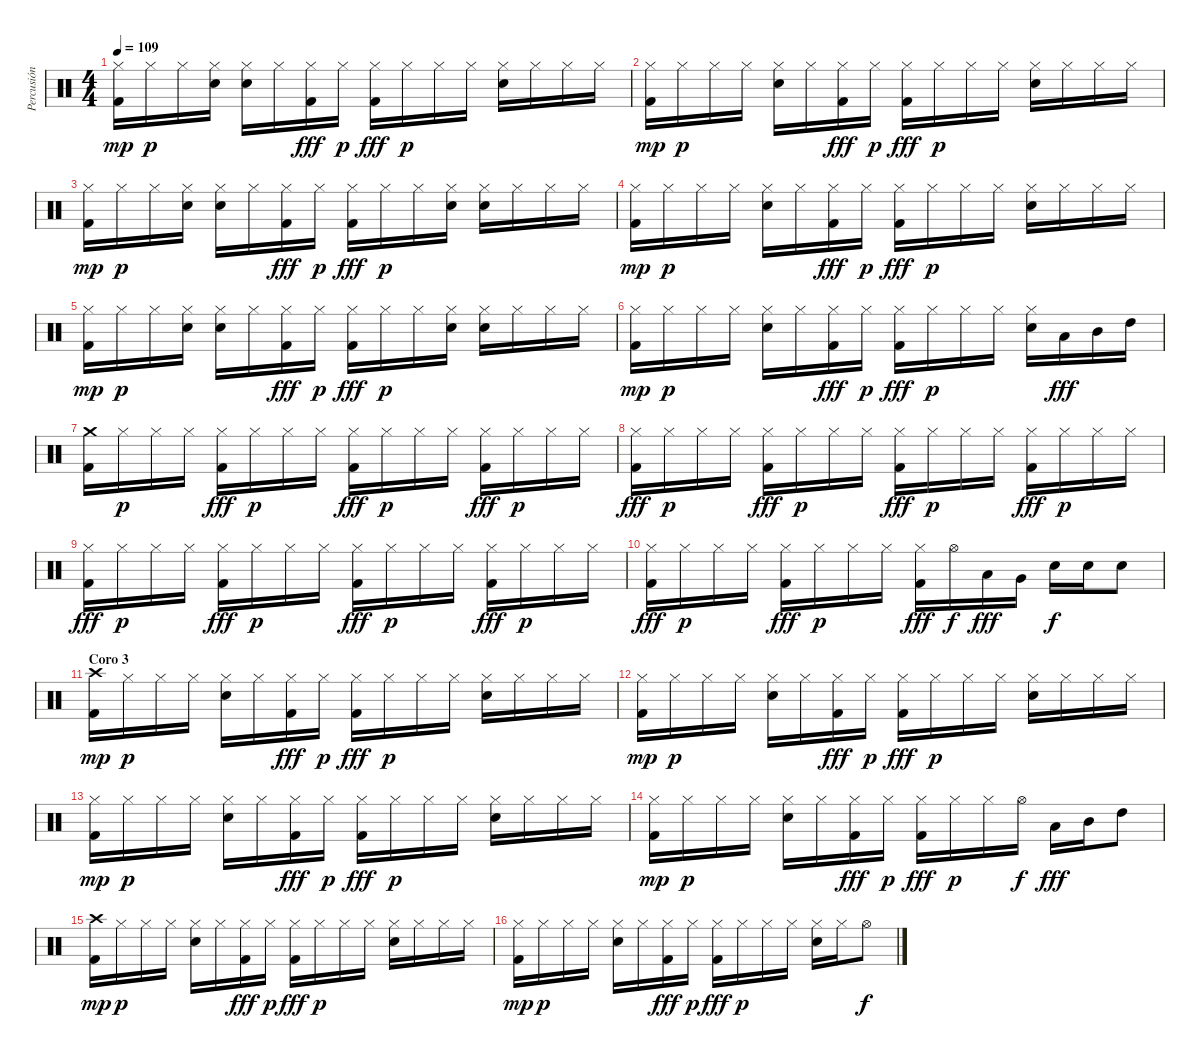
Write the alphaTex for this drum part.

\track ("Percusión" "Percusión") {instrument percussion}
\staff {score}
\articulation defaults
\ts (4 4)
\tempo 109
\clef neutral
\ks c
("Hi-Hat (closed)" "Kick (hit) 2").16{dy mp} "Hi-Hat (closed)".16{dy p} "Hi-Hat (closed)".16 ("Hi-Hat (closed)" "Snare (hit) 2").16 ("Hi-Hat (closed)" "Snare (hit) 2").16 "Hi-Hat (closed)".16 ("Hi-Hat (closed)" "Kick (hit) 2").16{dy fff} "Hi-Hat (closed)".16{dy p} ("Hi-Hat (closed)" "Kick (hit) 2").16{dy fff} "Hi-Hat (closed)".16{dy p} "Hi-Hat (closed)".16 "Hi-Hat (closed)".16 ("Hi-Hat (closed)" "Snare (hit) 2").16 "Hi-Hat (closed)".16 "Hi-Hat (closed)".16 "Hi-Hat (closed)".16 |
("Hi-Hat (closed)" "Kick (hit) 2").16{dy mp} "Hi-Hat (closed)".16{dy p} "Hi-Hat (closed)".16 "Hi-Hat (closed)".16 ("Hi-Hat (closed)" "Snare (hit) 2").16 "Hi-Hat (closed)".16 ("Hi-Hat (closed)" "Kick (hit) 2").16{dy fff} "Hi-Hat (closed)".16{dy p} ("Hi-Hat (closed)" "Kick (hit) 2").16{dy fff} "Hi-Hat (closed)".16{dy p} "Hi-Hat (closed)".16 "Hi-Hat (closed)".16 ("Hi-Hat (closed)" "Snare (hit) 2").16 "Hi-Hat (closed)".16 "Hi-Hat (closed)".16 "Hi-Hat (closed)".16 |
("Hi-Hat (closed)" "Kick (hit) 2").16{dy mp} "Hi-Hat (closed)".16{dy p} "Hi-Hat (closed)".16 ("Hi-Hat (closed)" "Snare (hit) 2").16 ("Hi-Hat (closed)" "Snare (hit) 2").16 "Hi-Hat (closed)".16 ("Hi-Hat (closed)" "Kick (hit) 2").16{dy fff} "Hi-Hat (closed)".16{dy p} ("Hi-Hat (closed)" "Kick (hit) 2").16{dy fff} "Hi-Hat (closed)".16{dy p} "Hi-Hat (closed)".16 ("Hi-Hat (closed)" "Snare (hit) 2").16 ("Hi-Hat (closed)" "Snare (hit) 2").16 "Hi-Hat (closed)".16 "Hi-Hat (closed)".16 "Hi-Hat (closed)".16 |
("Hi-Hat (closed)" "Kick (hit) 2").16{dy mp} "Hi-Hat (closed)".16{dy p} "Hi-Hat (closed)".16 "Hi-Hat (closed)".16 ("Hi-Hat (closed)" "Snare (hit) 2").16 "Hi-Hat (closed)".16 ("Hi-Hat (closed)" "Kick (hit) 2").16{dy fff} "Hi-Hat (closed)".16{dy p} ("Hi-Hat (closed)" "Kick (hit) 2").16{dy fff} "Hi-Hat (closed)".16{dy p} "Hi-Hat (closed)".16 "Hi-Hat (closed)".16 ("Hi-Hat (closed)" "Snare (hit) 2").16 "Hi-Hat (closed)".16 "Hi-Hat (closed)".16 "Hi-Hat (closed)".16 |
("Hi-Hat (closed)" "Kick (hit) 2").16{dy mp} "Hi-Hat (closed)".16{dy p} "Hi-Hat (closed)".16 ("Hi-Hat (closed)" "Snare (hit) 2").16 ("Hi-Hat (closed)" "Snare (hit) 2").16 "Hi-Hat (closed)".16 ("Hi-Hat (closed)" "Kick (hit) 2").16{dy fff} "Hi-Hat (closed)".16{dy p} ("Hi-Hat (closed)" "Kick (hit) 2").16{dy fff} "Hi-Hat (closed)".16{dy p} "Hi-Hat (closed)".16 ("Hi-Hat (closed)" "Snare (hit) 2").16 ("Hi-Hat (closed)" "Snare (hit) 2").16 "Hi-Hat (closed)".16 "Hi-Hat (closed)".16 "Hi-Hat (closed)".16 |
("Hi-Hat (closed)" "Kick (hit) 2").16{dy mp} "Hi-Hat (closed)".16{dy p} "Hi-Hat (closed)".16 "Hi-Hat (closed)".16 ("Hi-Hat (closed)" "Snare (hit) 2").16 "Hi-Hat (closed)".16 ("Hi-Hat (closed)" "Kick (hit) 2").16{dy fff} "Hi-Hat (closed)".16{dy p} ("Hi-Hat (closed)" "Kick (hit) 2").16{dy fff} "Hi-Hat (closed)".16{dy p} "Hi-Hat (closed)".16 "Hi-Hat (closed)".16 ("Hi-Hat (closed)" "Snare (hit) 2").16 "Low Tom (hit)".16{dy fff} "Mid Tom (hit)".16 "High Tom (hit)".16 |
("Crash medium (hit)" "Kick (hit) 2").16 "Hi-Hat (closed)".16{dy p} "Hi-Hat (closed)".16 "Hi-Hat (closed)".16 ("Hi-Hat (closed)" "Kick (hit) 2").16{dy fff} "Hi-Hat (closed)".16{dy p} "Hi-Hat (closed)".16 "Hi-Hat (closed)".16 ("Hi-Hat (closed)" "Kick (hit) 2").16{dy fff} "Hi-Hat (closed)".16{dy p} "Hi-Hat (closed)".16 "Hi-Hat (closed)".16 ("Hi-Hat (closed)" "Kick (hit) 2").16{dy fff} "Hi-Hat (closed)".16{dy p} "Hi-Hat (closed)".16 "Hi-Hat (closed)".16 |
("Hi-Hat (closed)" "Kick (hit) 2").16{dy fff} "Hi-Hat (closed)".16{dy p} "Hi-Hat (closed)".16 "Hi-Hat (closed)".16 ("Hi-Hat (closed)" "Kick (hit) 2").16{dy fff} "Hi-Hat (closed)".16{dy p} "Hi-Hat (closed)".16 "Hi-Hat (closed)".16 ("Hi-Hat (closed)" "Kick (hit) 2").16{dy fff} "Hi-Hat (closed)".16{dy p} "Hi-Hat (closed)".16 "Hi-Hat (closed)".16 ("Hi-Hat (closed)" "Kick (hit) 2").16{dy fff} "Hi-Hat (closed)".16{dy p} "Hi-Hat (closed)".16 "Hi-Hat (closed)".16 |
("Hi-Hat (closed)" "Kick (hit) 2").16{dy fff} "Hi-Hat (closed)".16{dy p} "Hi-Hat (closed)".16 "Hi-Hat (closed)".16 ("Hi-Hat (closed)" "Kick (hit) 2").16{dy fff} "Hi-Hat (closed)".16{dy p} "Hi-Hat (closed)".16 "Hi-Hat (closed)".16 ("Hi-Hat (closed)" "Kick (hit) 2").16{dy fff} "Hi-Hat (closed)".16{dy p} "Hi-Hat (closed)".16 "Hi-Hat (closed)".16 ("Hi-Hat (closed)" "Kick (hit) 2").16{dy fff} "Hi-Hat (closed)".16{dy p} "Hi-Hat (closed)".16 "Hi-Hat (closed)".16 |
("Hi-Hat (closed)" "Kick (hit) 2").16{dy fff} "Hi-Hat (closed)".16{dy p} "Hi-Hat (closed)".16 "Hi-Hat (closed)".16 ("Hi-Hat (closed)" "Kick (hit) 2").16{dy fff} "Hi-Hat (closed)".16{dy p} "Hi-Hat (closed)".16 "Hi-Hat (closed)".16 ("Hi-Hat (closed)" "Kick (hit) 2").16{dy fff} "Hi-Hat (open)".16{dy f} "Low Floor Tom (hit)".16{dy fff} "Very Low Tom (hit)".16 "Snare (hit) 2".16{dy f} "Snare (hit) 2".16 "Snare (hit) 2".8 |
\section ("" "Coro 3")
("Crash high (hit)" "Kick (hit) 2").16{dy mp} "Hi-Hat (closed)".16{dy p} "Hi-Hat (closed)".16 "Hi-Hat (closed)".16 ("Hi-Hat (closed)" "Snare (hit) 2").16 "Hi-Hat (closed)".16 ("Hi-Hat (closed)" "Kick (hit) 2").16{dy fff} "Hi-Hat (closed)".16{dy p} ("Hi-Hat (closed)" "Kick (hit) 2").16{dy fff} "Hi-Hat (closed)".16{dy p} "Hi-Hat (closed)".16 "Hi-Hat (closed)".16 ("Hi-Hat (closed)" "Snare (hit) 2").16 "Hi-Hat (closed)".16 "Hi-Hat (closed)".16 "Hi-Hat (closed)".16 |
("Hi-Hat (closed)" "Kick (hit) 2").16{dy mp} "Hi-Hat (closed)".16{dy p} "Hi-Hat (closed)".16 "Hi-Hat (closed)".16 ("Hi-Hat (closed)" "Snare (hit) 2").16 "Hi-Hat (closed)".16 ("Hi-Hat (closed)" "Kick (hit) 2").16{dy fff} "Hi-Hat (closed)".16{dy p} ("Hi-Hat (closed)" "Kick (hit) 2").16{dy fff} "Hi-Hat (closed)".16{dy p} "Hi-Hat (closed)".16 "Hi-Hat (closed)".16 ("Hi-Hat (closed)" "Snare (hit) 2").16 "Hi-Hat (closed)".16 "Hi-Hat (closed)".16 "Hi-Hat (closed)".16 |
("Hi-Hat (closed)" "Kick (hit) 2").16{dy mp} "Hi-Hat (closed)".16{dy p} "Hi-Hat (closed)".16 "Hi-Hat (closed)".16 ("Hi-Hat (closed)" "Snare (hit) 2").16 "Hi-Hat (closed)".16 ("Hi-Hat (closed)" "Kick (hit) 2").16{dy fff} "Hi-Hat (closed)".16{dy p} ("Hi-Hat (closed)" "Kick (hit) 2").16{dy fff} "Hi-Hat (closed)".16{dy p} "Hi-Hat (closed)".16 "Hi-Hat (closed)".16 ("Hi-Hat (closed)" "Snare (hit) 2").16 "Hi-Hat (closed)".16 "Hi-Hat (closed)".16 "Hi-Hat (closed)".16 |
("Hi-Hat (closed)" "Kick (hit) 2").16{dy mp} "Hi-Hat (closed)".16{dy p} "Hi-Hat (closed)".16 "Hi-Hat (closed)".16 ("Hi-Hat (closed)" "Snare (hit) 2").16 "Hi-Hat (closed)".16 ("Hi-Hat (closed)" "Kick (hit) 2").16{dy fff} "Hi-Hat (closed)".16{dy p} ("Hi-Hat (closed)" "Kick (hit) 2").16{dy fff} "Hi-Hat (closed)".16{dy p} "Hi-Hat (closed)".16 "Hi-Hat (open)".16{dy f} "Low Tom (hit)".16{dy fff} "Mid Tom (hit)".16 "High Tom (hit)".8 |
("Crash high (hit)" "Kick (hit) 2").16{dy mp} "Hi-Hat (closed)".16{dy p} "Hi-Hat (closed)".16 "Hi-Hat (closed)".16 ("Hi-Hat (closed)" "Snare (hit) 2").16 "Hi-Hat (closed)".16 ("Hi-Hat (closed)" "Kick (hit) 2").16{dy fff} "Hi-Hat (closed)".16{dy p} ("Hi-Hat (closed)" "Kick (hit) 2").16{dy fff} "Hi-Hat (closed)".16{dy p} "Hi-Hat (closed)".16 "Hi-Hat (closed)".16 ("Hi-Hat (closed)" "Snare (hit) 2").16 "Hi-Hat (closed)".16 "Hi-Hat (closed)".16 "Hi-Hat (closed)".16 |
("Hi-Hat (closed)" "Kick (hit) 2").16{dy mp} "Hi-Hat (closed)".16{dy p} "Hi-Hat (closed)".16 "Hi-Hat (closed)".16 ("Hi-Hat (closed)" "Snare (hit) 2").16 "Hi-Hat (closed)".16 ("Hi-Hat (closed)" "Kick (hit) 2").16{dy fff} "Hi-Hat (closed)".16{dy p} ("Hi-Hat (closed)" "Kick (hit) 2").16{dy fff} "Hi-Hat (closed)".16{dy p} "Hi-Hat (closed)".16 "Hi-Hat (closed)".16 ("Hi-Hat (closed)" "Snare (hit) 2").16 "Hi-Hat (closed)".16 "Hi-Hat (open)".8{dy f}
